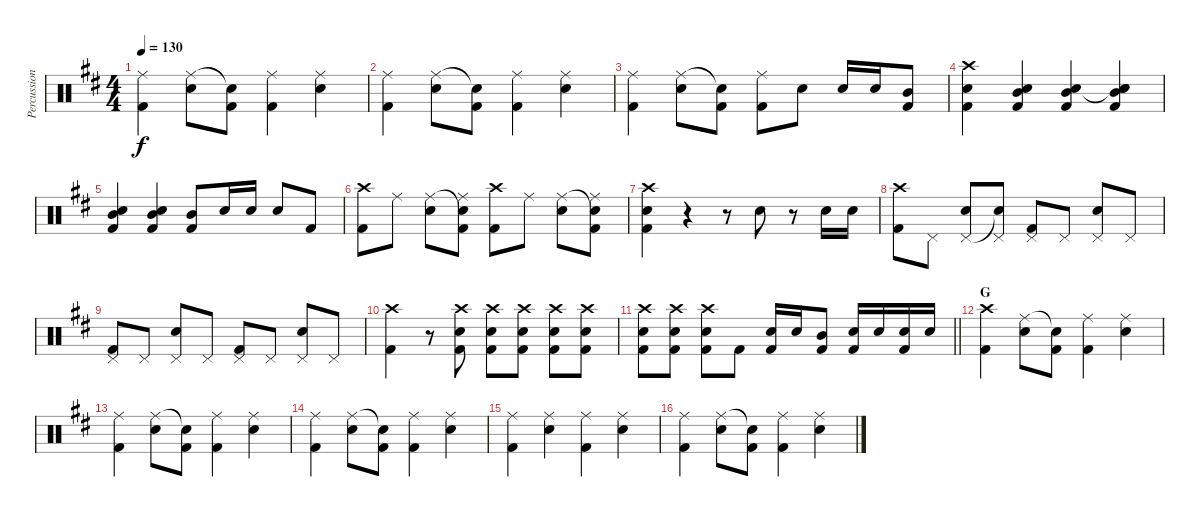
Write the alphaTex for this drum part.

\track ("Percussion" "Percussion") {instrument percussion}
\staff {score}
\articulation defaults
\ts (4 4)
\tempo 130
\clef neutral
\ks d
("Ride (middle)" "Kick (hit) 2").4{dy f} ("Ride (middle)" "Electric Snare (hit)").8 ("Snare (hit)"{t} "Kick (hit) 2").8 ("Ride (middle)" "Kick (hit) 2").4 ("Ride (middle)" "Electric Snare (hit)").4 |
("Ride (middle)" "Kick (hit) 2").4 ("Ride (middle)" "Electric Snare (hit)").8 ("Snare (hit)"{t} "Kick (hit) 2").8 ("Ride (middle)" "Kick (hit) 2").4 ("Ride (middle)" "Electric Snare (hit)").4 |
("Ride (middle)" "Kick (hit) 2").4 ("Ride (middle)" "Electric Snare (hit)").8 ("Snare (hit)"{t} "Kick (hit) 2").8 ("Ride (middle)" "Kick (hit) 2").8 "Electric Snare (hit)".8 "Electric Snare (hit)".16 "Electric Snare (hit)".16 ("Mid Tom (hit)" "Kick (hit) 2").8 |
("Crash high (hit)" "Electric Snare (hit)" "Kick (hit) 2").4 ("Mid Tom (hit)" "Electric Snare (hit)" "Kick (hit) 2").4 ("Mid Tom (hit)" "Electric Snare (hit)" "Kick (hit) 2").4 ("Mid Tom (hit)" "Snare (hit)"{t} "Electric Snare (hit)" "Kick (hit) 2").4 |
("Mid Tom (hit)" "Electric Snare (hit)" "Kick (hit) 2").4 ("Mid Tom (hit)" "Electric Snare (hit)" "Kick (hit) 2").4 ("Mid Tom (hit)" "Kick (hit) 2").8 "Electric Snare (hit)".16 "Electric Snare (hit)".16 "Electric Snare (hit)".8 "Kick (hit) 2".8 |
("Crash high (hit)" "Kick (hit) 2").8 "Ride (middle)".8 ("Ride (middle)" "Electric Snare (hit)").8 ("Snare (hit)"{t} "Ride (middle)" "Kick (hit) 2").8 ("Crash high (hit)" "Kick (hit) 2").8 "Ride (middle)".8 ("Ride (middle)" "Electric Snare (hit)").8 ("Snare (hit)"{t} "Ride (middle)" "Kick (hit) 2").8 |
("Crash high (hit)" "Electric Snare (hit)" "Kick (hit) 2").4 r.4 r.8 "Electric Snare (hit)".8 r.8 "Electric Snare (hit)".16 "Electric Snare (hit)".16 |
("Crash high (hit)" "Kick (hit) 2").8 "Pedal Hi-Hat (hit)".8 ("Pedal Hi-Hat (hit)" "Electric Snare (hit)").8 ("Snare (hit)"{t} "Pedal Hi-Hat (hit)").8 ("Pedal Hi-Hat (hit)" "Kick (hit) 2").8 "Pedal Hi-Hat (hit)".8 ("Pedal Hi-Hat (hit)" "Electric Snare (hit)").8 "Pedal Hi-Hat (hit)".8 |
("Pedal Hi-Hat (hit)" "Kick (hit) 2").8 "Pedal Hi-Hat (hit)".8 ("Pedal Hi-Hat (hit)" "Electric Snare (hit)").8 "Pedal Hi-Hat (hit)".8 ("Pedal Hi-Hat (hit)" "Kick (hit) 2").8 "Pedal Hi-Hat (hit)".8 ("Pedal Hi-Hat (hit)" "Electric Snare (hit)").8 "Pedal Hi-Hat (hit)".8 |
("Crash high (hit)" "Kick (hit) 2").4 r.8 ("Crash high (hit)" "Electric Snare (hit)" "Kick (hit) 2").8 ("Crash high (hit)" "Electric Snare (hit)" "Kick (hit) 2").8 ("Crash high (hit)" "Electric Snare (hit)" "Kick (hit) 2").8 ("Crash high (hit)" "Electric Snare (hit)" "Kick (hit) 2").8 ("Crash high (hit)" "Electric Snare (hit)" "Kick (hit) 2").8 |
\barLineRight lightlight
("Crash high (hit)" "Electric Snare (hit)" "Kick (hit) 2").8 ("Crash high (hit)" "Electric Snare (hit)" "Kick (hit) 2").8 ("Crash high (hit)" "Electric Snare (hit)" "Kick (hit) 2").8 "Kick (hit) 2".8 ("Electric Snare (hit)" "Kick (hit) 2").16 "Electric Snare (hit)".16 ("Mid Tom (hit)" "Kick (hit) 2").8 ("Electric Snare (hit)" "Kick (hit) 2").16 "Electric Snare (hit)".16 ("Electric Snare (hit)" "Kick (hit) 2").16 "Electric Snare (hit)".16 |
\section ("" "G")
("Crash high (hit)" "Kick (hit) 2").4 ("Ride (middle)" "Electric Snare (hit)").8 ("Snare (hit)"{t} "Kick (hit) 2").8 ("Ride (middle)" "Kick (hit) 2").4 ("Ride (middle)" "Electric Snare (hit)").4 |
("Ride (middle)" "Kick (hit) 2").4 ("Ride (middle)" "Electric Snare (hit)").8 ("Snare (hit)"{t} "Kick (hit) 2").8 ("Ride (middle)" "Kick (hit) 2").4 ("Ride (middle)" "Electric Snare (hit)").4 |
("Ride (middle)" "Kick (hit) 2").4 ("Ride (middle)" "Electric Snare (hit)").8 ("Snare (hit)"{t} "Kick (hit) 2").8 ("Ride (middle)" "Kick (hit) 2").4 ("Ride (middle)" "Electric Snare (hit)").4 |
("Ride (middle)" "Kick (hit) 2").4 ("Ride (middle)" "Electric Snare (hit)").4 ("Ride (middle)" "Kick (hit) 2").4 ("Ride (middle)" "Electric Snare (hit)").4 |
("Ride (middle)" "Kick (hit) 2").4 ("Ride (middle)" "Electric Snare (hit)").8 ("Snare (hit)"{t} "Kick (hit) 2").8 ("Ride (middle)" "Kick (hit) 2").4 ("Ride (middle)" "Electric Snare (hit)").4
